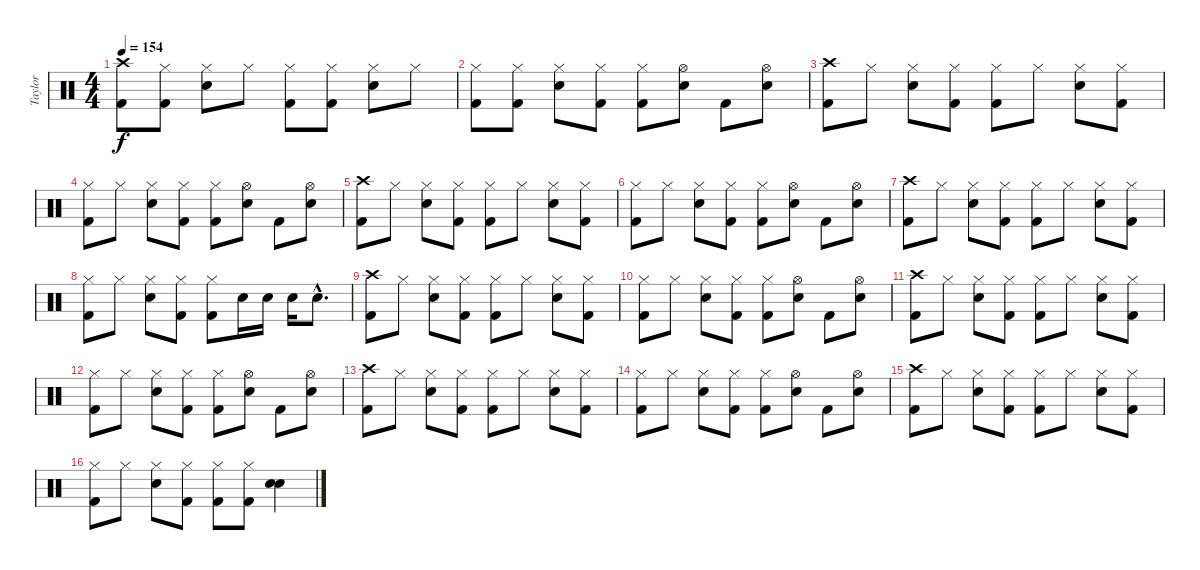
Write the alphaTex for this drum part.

\track ("Taylor" "Taylor") {instrument percussion}
\staff {score}
\articulation defaults
\ts (4 4)
\tempo 154
\clef neutral
\ks c
("Crash high (hit)" "Kick (hit) 2").8{dy f} ("Hi-Hat (closed)" "Kick (hit) 2").8 ("Hi-Hat (closed)" "Snare (hit) 2").8 "Hi-Hat (closed)".8 ("Hi-Hat (closed)" "Kick (hit) 2").8 ("Hi-Hat (closed)" "Kick (hit) 2").8 ("Hi-Hat (closed)" "Snare (hit) 2").8 "Hi-Hat (closed)".8 |
("Hi-Hat (closed)" "Kick (hit) 2").8 ("Hi-Hat (closed)" "Kick (hit) 2").8 ("Hi-Hat (closed)" "Snare (hit) 2").8 ("Hi-Hat (closed)" "Kick (hit) 2").8 ("Hi-Hat (closed)" "Kick (hit) 2").8 ("Hi-Hat (open)" "Snare (hit) 2").8 "Kick (hit) 2".8 ("Hi-Hat (open)" "Snare (hit) 2").8 |
("Crash high (hit)" "Kick (hit) 2").8 "Hi-Hat (closed)".8 ("Hi-Hat (closed)" "Snare (hit) 2").8 ("Hi-Hat (closed)" "Kick (hit) 2").8 ("Hi-Hat (closed)" "Kick (hit) 2").8 "Hi-Hat (closed)".8 ("Hi-Hat (closed)" "Snare (hit) 2").8 ("Hi-Hat (closed)" "Kick (hit) 2").8 |
("Hi-Hat (closed)" "Kick (hit) 2").8 "Hi-Hat (closed)".8 ("Hi-Hat (closed)" "Snare (hit) 2").8 ("Hi-Hat (closed)" "Kick (hit) 2").8 ("Hi-Hat (closed)" "Kick (hit) 2").8 ("Hi-Hat (open)" "Snare (hit) 2").8 "Kick (hit) 2".8 ("Hi-Hat (open)" "Snare (hit) 2").8 |
("Crash high (hit)" "Kick (hit) 2").8 "Hi-Hat (closed)".8 ("Hi-Hat (closed)" "Snare (hit) 2").8 ("Hi-Hat (closed)" "Kick (hit) 2").8 ("Hi-Hat (closed)" "Kick (hit) 2").8 "Hi-Hat (closed)".8 ("Hi-Hat (closed)" "Snare (hit) 2").8 ("Hi-Hat (closed)" "Kick (hit) 2").8 |
("Hi-Hat (closed)" "Kick (hit) 2").8 "Hi-Hat (closed)".8 ("Hi-Hat (closed)" "Snare (hit) 2").8 ("Hi-Hat (closed)" "Kick (hit) 2").8 ("Hi-Hat (closed)" "Kick (hit) 2").8 ("Hi-Hat (open)" "Snare (hit) 2").8 "Kick (hit) 2".8 ("Hi-Hat (open)" "Snare (hit) 2").8 |
("Crash high (hit)" "Kick (hit) 2").8 "Hi-Hat (closed)".8 ("Hi-Hat (closed)" "Snare (hit) 2").8 ("Hi-Hat (closed)" "Kick (hit) 2").8 ("Hi-Hat (closed)" "Kick (hit) 2").8 "Hi-Hat (closed)".8 ("Hi-Hat (closed)" "Snare (hit) 2").8 ("Hi-Hat (closed)" "Kick (hit) 2").8 |
("Hi-Hat (closed)" "Kick (hit) 2").8 "Hi-Hat (closed)".8 ("Hi-Hat (closed)" "Snare (hit) 2").8 ("Hi-Hat (closed)" "Kick (hit) 2").8 ("Hi-Hat (closed)" "Kick (hit) 2").8 "Snare (hit) 2".16 "Snare (hit) 2".16 "Snare (hit) 2".16 "Snare (hit) 2"{hac}.8{d} |
("Crash high (hit)" "Kick (hit) 2").8 "Hi-Hat (closed)".8 ("Hi-Hat (closed)" "Snare (hit) 2").8 ("Hi-Hat (closed)" "Kick (hit) 2").8 ("Hi-Hat (closed)" "Kick (hit) 2").8 "Hi-Hat (closed)".8 ("Hi-Hat (closed)" "Snare (hit) 2").8 ("Hi-Hat (closed)" "Kick (hit) 2").8 |
("Hi-Hat (closed)" "Kick (hit) 2").8 "Hi-Hat (closed)".8 ("Hi-Hat (closed)" "Snare (hit) 2").8 ("Hi-Hat (closed)" "Kick (hit) 2").8 ("Hi-Hat (closed)" "Kick (hit) 2").8 ("Hi-Hat (open)" "Snare (hit) 2").8 "Kick (hit) 2".8 ("Hi-Hat (open)" "Snare (hit) 2").8 |
("Crash high (hit)" "Kick (hit) 2").8 "Hi-Hat (closed)".8 ("Hi-Hat (closed)" "Snare (hit) 2").8 ("Hi-Hat (closed)" "Kick (hit) 2").8 ("Hi-Hat (closed)" "Kick (hit) 2").8 "Hi-Hat (closed)".8 ("Hi-Hat (closed)" "Snare (hit) 2").8 ("Hi-Hat (closed)" "Kick (hit) 2").8 |
("Hi-Hat (closed)" "Kick (hit) 2").8 "Hi-Hat (closed)".8 ("Hi-Hat (closed)" "Snare (hit) 2").8 ("Hi-Hat (closed)" "Kick (hit) 2").8 ("Hi-Hat (closed)" "Kick (hit) 2").8 ("Hi-Hat (open)" "Snare (hit) 2").8 "Kick (hit) 2".8 ("Hi-Hat (open)" "Snare (hit) 2").8 |
("Crash high (hit)" "Kick (hit) 2").8 "Hi-Hat (closed)".8 ("Hi-Hat (closed)" "Snare (hit) 2").8 ("Hi-Hat (closed)" "Kick (hit) 2").8 ("Hi-Hat (closed)" "Kick (hit) 2").8 "Hi-Hat (closed)".8 ("Hi-Hat (closed)" "Snare (hit) 2").8 ("Hi-Hat (closed)" "Kick (hit) 2").8 |
("Hi-Hat (closed)" "Kick (hit) 2").8 "Hi-Hat (closed)".8 ("Hi-Hat (closed)" "Snare (hit) 2").8 ("Hi-Hat (closed)" "Kick (hit) 2").8 ("Hi-Hat (closed)" "Kick (hit) 2").8 ("Hi-Hat (open)" "Snare (hit) 2").8 "Kick (hit) 2".8 ("Hi-Hat (open)" "Snare (hit) 2").8 |
("Crash high (hit)" "Kick (hit) 2").8 "Hi-Hat (closed)".8 ("Hi-Hat (closed)" "Snare (hit) 2").8 ("Hi-Hat (closed)" "Kick (hit) 2").8 ("Hi-Hat (closed)" "Kick (hit) 2").8 "Hi-Hat (closed)".8 ("Hi-Hat (closed)" "Snare (hit) 2").8 ("Hi-Hat (closed)" "Kick (hit) 2").8 |
("Hi-Hat (closed)" "Kick (hit) 2").8 "Hi-Hat (closed)".8 ("Hi-Hat (closed)" "Snare (hit) 2").8 ("Hi-Hat (closed)" "Kick (hit) 2").8 ("Hi-Hat (closed)" "Kick (hit) 2").8 ("Hi-Hat (closed)" "Kick (hit) 2").8 ("Snare (hit) 2" "Snare (hit) 2").4{bd 240}
